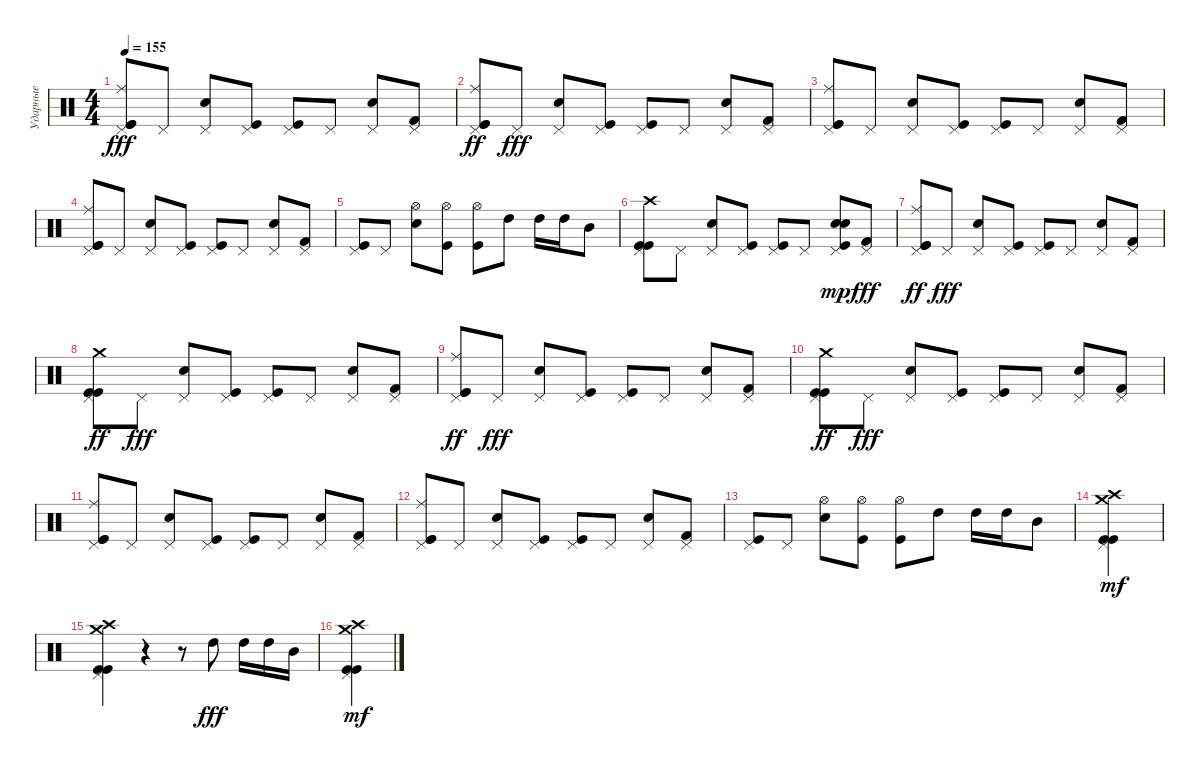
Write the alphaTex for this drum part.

\track ("Ударные" "Ударные") {instrument percussion}
\staff
\articulation defaults
\ts (4 4)
\tempo 155
\clef neutral
\ks c
("Kick (hit)" "Pedal Hi-Hat (hit)" "Kick (hit)" "Ride (middle)").8{dy fff} "Pedal Hi-Hat (hit)".8 ("Pedal Hi-Hat (hit)" "Snare (hit) 2").8 ("Pedal Hi-Hat (hit)" "Kick (hit)").8 ("Pedal Hi-Hat (hit)" "Kick (hit)").8 "Pedal Hi-Hat (hit)".8 ("Snare (hit) 2" "Pedal Hi-Hat (hit)").8 ("Kick (hit) 2" "Pedal Hi-Hat (hit)").8 |
("Kick (hit)" "Pedal Hi-Hat (hit)" "Kick (hit)" "Ride (middle)").8{dy ff} "Pedal Hi-Hat (hit)".8{dy fff} ("Pedal Hi-Hat (hit)" "Snare (hit) 2").8 ("Pedal Hi-Hat (hit)" "Kick (hit)").8 ("Pedal Hi-Hat (hit)" "Kick (hit)").8 "Pedal Hi-Hat (hit)".8 ("Snare (hit) 2" "Pedal Hi-Hat (hit)").8 ("Kick (hit) 2" "Pedal Hi-Hat (hit)").8 |
("Kick (hit)" "Pedal Hi-Hat (hit)" "Kick (hit)" "Ride (middle)").8 "Pedal Hi-Hat (hit)".8 ("Pedal Hi-Hat (hit)" "Snare (hit) 2").8 ("Pedal Hi-Hat (hit)" "Kick (hit)").8 ("Pedal Hi-Hat (hit)" "Kick (hit)").8 "Pedal Hi-Hat (hit)".8 ("Snare (hit) 2" "Pedal Hi-Hat (hit)").8 ("Kick (hit) 2" "Pedal Hi-Hat (hit)").8 |
("Kick (hit)" "Pedal Hi-Hat (hit)" "Kick (hit)" "Ride (middle)").8 "Pedal Hi-Hat (hit)".8 ("Pedal Hi-Hat (hit)" "Snare (hit) 2").8 ("Pedal Hi-Hat (hit)" "Kick (hit)").8 ("Pedal Hi-Hat (hit)" "Kick (hit)").8 "Pedal Hi-Hat (hit)".8 ("Snare (hit) 2" "Pedal Hi-Hat (hit)").8 ("Kick (hit) 2" "Pedal Hi-Hat (hit)").8 |
("Kick (hit)" "Pedal Hi-Hat (hit)").8 "Pedal Hi-Hat (hit)".8 ("Snare (hit) 2" "Hi-Hat (open)").8 ("Kick (hit)" "Hi-Hat (open)").8 ("Kick (hit)" "Hi-Hat (open)").8 "High Tom (hit)".8 "High Tom (hit)".16 "High Tom (hit)".16 "Mid Tom (hit)".8 |
("Kick (hit)" "Pedal Hi-Hat (hit)" "Kick (hit)" "Crash high (hit)").8 "Pedal Hi-Hat (hit)".8 ("Pedal Hi-Hat (hit)" "Snare (hit) 2").8 ("Pedal Hi-Hat (hit)" "Kick (hit)").8 ("Pedal Hi-Hat (hit)" "Kick (hit)").8 "Pedal Hi-Hat (hit)".8 ("Snare (hit) 2" "Pedal Hi-Hat (hit)" "Kick (hit)" "Electric Snare (hit)").8{dy mp} ("Kick (hit) 2" "Pedal Hi-Hat (hit)").8{dy fff} |
("Kick (hit)" "Pedal Hi-Hat (hit)" "Kick (hit)" "Ride (middle)").8{dy ff} "Pedal Hi-Hat (hit)".8{dy fff} ("Pedal Hi-Hat (hit)" "Snare (hit) 2").8 ("Pedal Hi-Hat (hit)" "Kick (hit)").8 ("Pedal Hi-Hat (hit)" "Kick (hit)").8 "Pedal Hi-Hat (hit)".8 ("Snare (hit) 2" "Pedal Hi-Hat (hit)").8 ("Kick (hit) 2" "Pedal Hi-Hat (hit)").8 |
("Kick (hit)" "Pedal Hi-Hat (hit)" "Kick (hit)" "Crash medium (hit)").8{dy ff} "Pedal Hi-Hat (hit)".8{dy fff} ("Pedal Hi-Hat (hit)" "Snare (hit) 2").8 ("Pedal Hi-Hat (hit)" "Kick (hit)").8 ("Pedal Hi-Hat (hit)" "Kick (hit)").8 "Pedal Hi-Hat (hit)".8 ("Snare (hit) 2" "Pedal Hi-Hat (hit)").8 ("Kick (hit) 2" "Pedal Hi-Hat (hit)").8 |
("Kick (hit)" "Pedal Hi-Hat (hit)" "Kick (hit)" "Ride (middle)").8{dy ff} "Pedal Hi-Hat (hit)".8{dy fff} ("Pedal Hi-Hat (hit)" "Snare (hit) 2").8 ("Pedal Hi-Hat (hit)" "Kick (hit)").8 ("Pedal Hi-Hat (hit)" "Kick (hit)").8 "Pedal Hi-Hat (hit)".8 ("Snare (hit) 2" "Pedal Hi-Hat (hit)").8 ("Kick (hit) 2" "Pedal Hi-Hat (hit)").8 |
("Kick (hit)" "Pedal Hi-Hat (hit)" "Kick (hit)" "Crash medium (hit)").8{dy ff} "Pedal Hi-Hat (hit)".8{dy fff} ("Pedal Hi-Hat (hit)" "Snare (hit) 2").8 ("Pedal Hi-Hat (hit)" "Kick (hit)").8 ("Pedal Hi-Hat (hit)" "Kick (hit)").8 "Pedal Hi-Hat (hit)".8 ("Snare (hit) 2" "Pedal Hi-Hat (hit)").8 ("Kick (hit) 2" "Pedal Hi-Hat (hit)").8 |
("Kick (hit)" "Pedal Hi-Hat (hit)" "Kick (hit)" "Ride (middle)").8 "Pedal Hi-Hat (hit)".8 ("Pedal Hi-Hat (hit)" "Snare (hit) 2").8 ("Pedal Hi-Hat (hit)" "Kick (hit)").8 ("Pedal Hi-Hat (hit)" "Kick (hit)").8 "Pedal Hi-Hat (hit)".8 ("Snare (hit) 2" "Pedal Hi-Hat (hit)").8 ("Kick (hit) 2" "Pedal Hi-Hat (hit)").8 |
("Kick (hit)" "Pedal Hi-Hat (hit)" "Kick (hit)" "Ride (middle)").8 "Pedal Hi-Hat (hit)".8 ("Pedal Hi-Hat (hit)" "Snare (hit) 2").8 ("Pedal Hi-Hat (hit)" "Kick (hit)").8 ("Pedal Hi-Hat (hit)" "Kick (hit)").8 "Pedal Hi-Hat (hit)".8 ("Snare (hit) 2" "Pedal Hi-Hat (hit)").8 ("Kick (hit) 2" "Pedal Hi-Hat (hit)").8 |
("Kick (hit)" "Pedal Hi-Hat (hit)").8 "Pedal Hi-Hat (hit)".8 ("Snare (hit) 2" "Hi-Hat (open)").8 ("Kick (hit)" "Hi-Hat (open)").8 ("Kick (hit)" "Hi-Hat (open)").8 "High Tom (hit)".8 "High Tom (hit)".16 "High Tom (hit)".16 "Mid Tom (hit)".8 |
("Crash high (hit)" "Kick (hit)" "Pedal Hi-Hat (hit)" "Kick (hit)" "Crash medium (hit)").4{dy mf} |
("Crash high (hit)" "Kick (hit)" "Pedal Hi-Hat (hit)" "Kick (hit)" "Crash medium (hit)").4 r.4 r.8 "High Tom (hit)".8{dy fff} "High Tom (hit)".16 "High Tom (hit)".16 "Mid Tom (hit)".16 |
("Crash high (hit)" "Kick (hit)" "Pedal Hi-Hat (hit)" "Kick (hit)" "Crash medium (hit)").4{dy mf}
